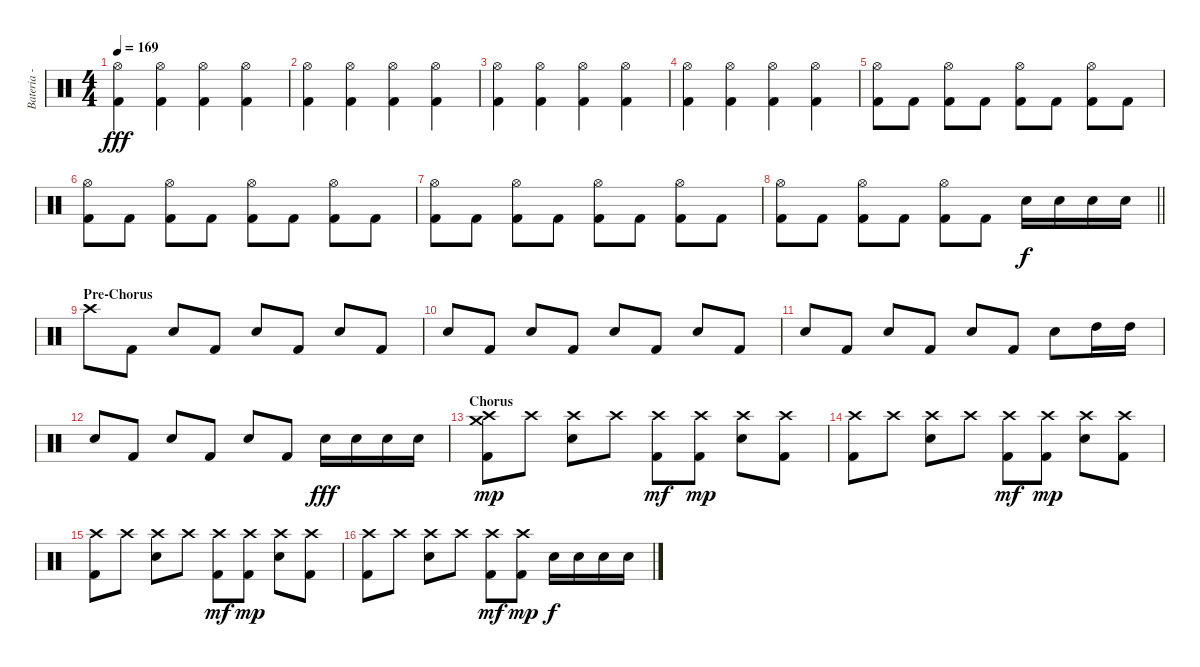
\track ("Bateria - Larzon" "Bateria - ") {instrument percussion}
\staff {score}
\articulation defaults
\ts (4 4)
\tempo 169
\clef neutral
\ks c
("Hi-Hat (open)" "Kick (hit) 2").4{dy fff} ("Hi-Hat (open)" "Kick (hit) 2").4 ("Hi-Hat (open)" "Kick (hit) 2").4 ("Hi-Hat (open)" "Kick (hit) 2").4 |
("Hi-Hat (open)" "Kick (hit) 2").4 ("Hi-Hat (open)" "Kick (hit) 2").4 ("Hi-Hat (open)" "Kick (hit) 2").4 ("Hi-Hat (open)" "Kick (hit) 2").4 |
("Hi-Hat (open)" "Kick (hit) 2").4 ("Hi-Hat (open)" "Kick (hit) 2").4 ("Hi-Hat (open)" "Kick (hit) 2").4 ("Hi-Hat (open)" "Kick (hit) 2").4 |
("Hi-Hat (open)" "Kick (hit) 2").4 ("Hi-Hat (open)" "Kick (hit) 2").4 ("Hi-Hat (open)" "Kick (hit) 2").4 ("Hi-Hat (open)" "Kick (hit) 2").4 |
("Hi-Hat (open)" "Kick (hit) 2").8 "Kick (hit) 2".8 ("Hi-Hat (open)" "Kick (hit) 2").8 "Kick (hit) 2".8 ("Hi-Hat (open)" "Kick (hit) 2").8 "Kick (hit) 2".8 ("Hi-Hat (open)" "Kick (hit) 2").8 "Kick (hit) 2".8 |
("Hi-Hat (open)" "Kick (hit) 2").8 "Kick (hit) 2".8 ("Hi-Hat (open)" "Kick (hit) 2").8 "Kick (hit) 2".8 ("Hi-Hat (open)" "Kick (hit) 2").8 "Kick (hit) 2".8 ("Hi-Hat (open)" "Kick (hit) 2").8 "Kick (hit) 2".8 |
("Hi-Hat (open)" "Kick (hit) 2").8 "Kick (hit) 2".8 ("Hi-Hat (open)" "Kick (hit) 2").8 "Kick (hit) 2".8 ("Hi-Hat (open)" "Kick (hit) 2").8 "Kick (hit) 2".8 ("Hi-Hat (open)" "Kick (hit) 2").8 "Kick (hit) 2".8 |
\barLineRight lightlight
("Hi-Hat (open)" "Kick (hit) 2").8 "Kick (hit) 2".8 ("Hi-Hat (open)" "Kick (hit) 2").8 "Kick (hit) 2".8 ("Hi-Hat (open)" "Kick (hit) 2").8 "Kick (hit) 2".8 "Electric Snare (hit)".16{dy f} "Electric Snare (hit)".16 "Electric Snare (hit)".16 "Electric Snare (hit)".16 |
\section ("" "Pre-Chorus")
"Crash high (hit)".8 "Kick (hit) 2".8 "Electric Snare (hit)".8 "Kick (hit) 2".8 "Electric Snare (hit)".8 "Kick (hit) 2".8 "Electric Snare (hit)".8 "Kick (hit) 2".8 |
"Electric Snare (hit)".8 "Kick (hit) 2".8 "Electric Snare (hit)".8 "Kick (hit) 2".8 "Electric Snare (hit)".8 "Kick (hit) 2".8 "Electric Snare (hit)".8 "Kick (hit) 2".8 |
"Electric Snare (hit)".8 "Kick (hit) 2".8 "Electric Snare (hit)".8 "Kick (hit) 2".8 "Electric Snare (hit)".8 "Kick (hit) 2".8 "Electric Snare (hit)".8 "High Tom (hit)".16 "High Tom (hit)".16 |
"Electric Snare (hit)".8 "Kick (hit) 2".8 "Electric Snare (hit)".8 "Kick (hit) 2".8 "Electric Snare (hit)".8 "Kick (hit) 2".8 "Electric Snare (hit)".16{dy fff} "Electric Snare (hit)".16 "Electric Snare (hit)".16 "Electric Snare (hit)".16 |
\section ("" "Chorus")
("Kick (hit) 2" "Crash medium (hit)" "Crash high (hit)").8{dy mp} "Crash high (hit)".8 ("Electric Snare (hit)" "Crash high (hit)").8 "Crash high (hit)".8 ("Kick (hit) 2" "Crash high (hit)").8{dy mf} ("Kick (hit) 2" "Crash high (hit)").8{dy mp} ("Electric Snare (hit)" "Crash high (hit)").8 ("Kick (hit) 2" "Crash high (hit)").8 |
("Kick (hit) 2" "Crash high (hit)").8 "Crash high (hit)".8 ("Electric Snare (hit)" "Crash high (hit)").8 "Crash high (hit)".8 ("Kick (hit) 2" "Crash high (hit)").8{dy mf} ("Kick (hit) 2" "Crash high (hit)").8{dy mp} ("Electric Snare (hit)" "Crash high (hit)").8 ("Kick (hit) 2" "Crash high (hit)").8 |
("Kick (hit) 2" "Crash high (hit)").8 "Crash high (hit)".8 ("Electric Snare (hit)" "Crash high (hit)").8 "Crash high (hit)".8 ("Kick (hit) 2" "Crash high (hit)").8{dy mf} ("Kick (hit) 2" "Crash high (hit)").8{dy mp} ("Electric Snare (hit)" "Crash high (hit)").8 ("Kick (hit) 2" "Crash high (hit)").8 |
("Kick (hit) 2" "Crash high (hit)").8 "Crash high (hit)".8 ("Electric Snare (hit)" "Crash high (hit)").8 "Crash high (hit)".8 ("Kick (hit) 2" "Crash high (hit)").8{dy mf} ("Kick (hit) 2" "Crash high (hit)").8{dy mp} "Electric Snare (hit)".16{dy f} "Electric Snare (hit)".16 "Electric Snare (hit)".16 "Electric Snare (hit)".16
